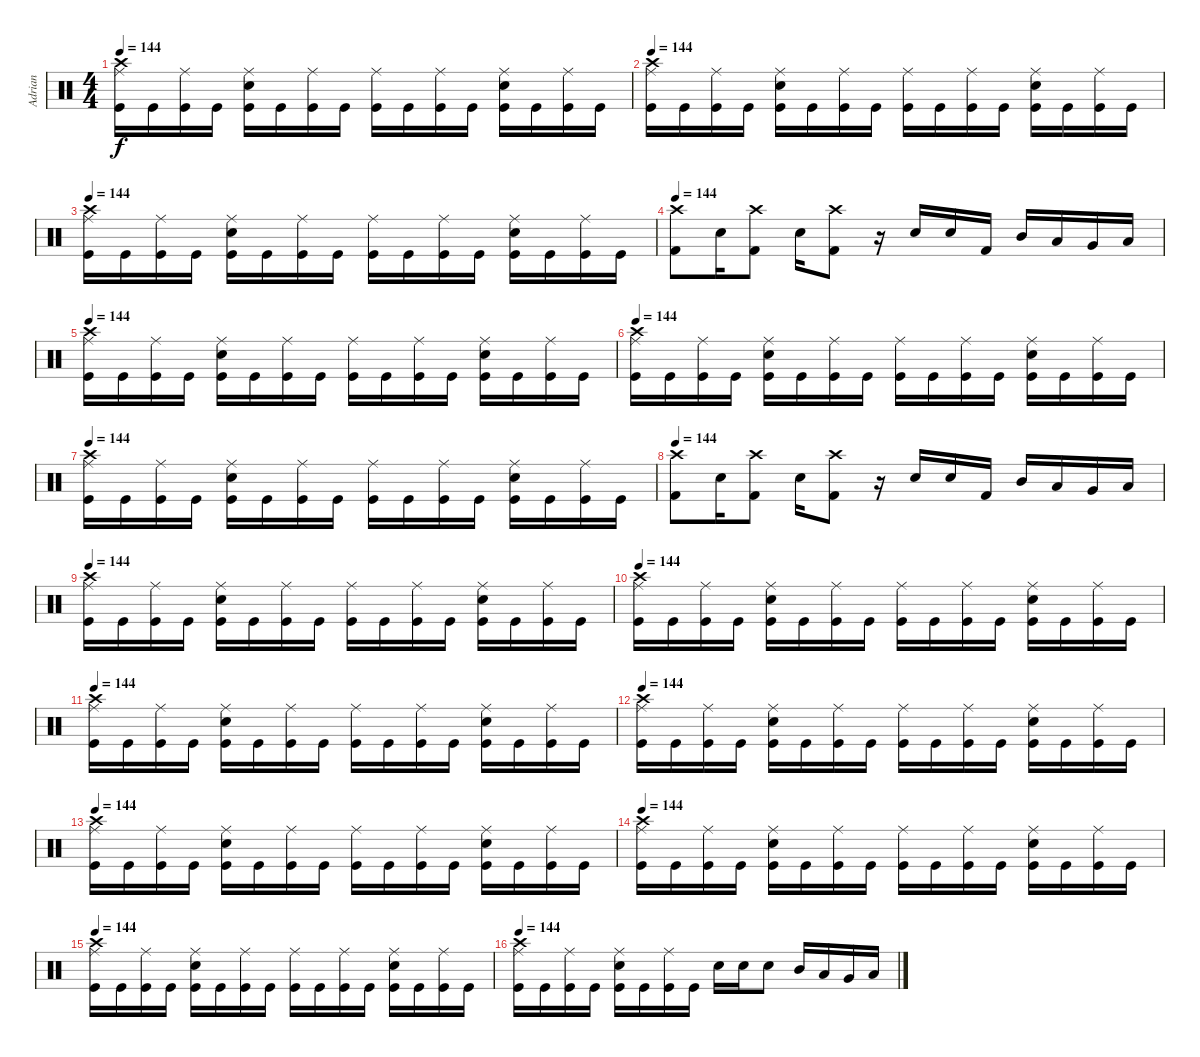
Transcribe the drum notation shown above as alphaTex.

\track ("Adrian" "Adrian") {instrument percussion}
\staff {score}
\articulation defaults
\ts (4 4)
\tempo 144
\clef neutral
\ks c
("Kick (hit)" "Ride (middle)" "Crash high (hit)").16{dy f} "Kick (hit)".16 ("Kick (hit)" "Ride (middle)").16 "Kick (hit)".16 ("Kick (hit)" "Snare (hit) 2" "Ride (middle)").16 "Kick (hit)".16 ("Kick (hit)" "Ride (middle)").16 "Kick (hit)".16 ("Kick (hit)" "Ride (middle)").16 "Kick (hit)".16 ("Kick (hit)" "Ride (middle)").16 "Kick (hit)".16 ("Kick (hit)" "Snare (hit) 2" "Ride (middle)").16 "Kick (hit)".16 ("Kick (hit)" "Ride (middle)").16 "Kick (hit)".16 |
\tempo 144
("Kick (hit)" "Ride (middle)" "Crash high (hit)").16 "Kick (hit)".16 ("Kick (hit)" "Ride (middle)").16 "Kick (hit)".16 ("Kick (hit)" "Snare (hit) 2" "Ride (middle)").16 "Kick (hit)".16 ("Kick (hit)" "Ride (middle)").16 "Kick (hit)".16 ("Kick (hit)" "Ride (middle)").16 "Kick (hit)".16 ("Kick (hit)" "Ride (middle)").16 "Kick (hit)".16 ("Kick (hit)" "Snare (hit) 2" "Ride (middle)").16 "Kick (hit)".16 ("Kick (hit)" "Ride (middle)").16 "Kick (hit)".16 |
\tempo 144
("Kick (hit)" "Ride (middle)" "Crash high (hit)").16 "Kick (hit)".16 ("Kick (hit)" "Ride (middle)").16 "Kick (hit)".16 ("Kick (hit)" "Snare (hit) 2" "Ride (middle)").16 "Kick (hit)".16 ("Kick (hit)" "Ride (middle)").16 "Kick (hit)".16 ("Kick (hit)" "Ride (middle)").16 "Kick (hit)".16 ("Kick (hit)" "Ride (middle)").16 "Kick (hit)".16 ("Kick (hit)" "Snare (hit) 2" "Ride (middle)").16 "Kick (hit)".16 ("Kick (hit)" "Ride (middle)").16 "Kick (hit)".16 |
\tempo 144
("Kick (hit) 2" "Crash high (hit)").8 "Snare (hit) 2".16 ("Kick (hit) 2" "Crash high (hit)").8 "Snare (hit) 2".16 ("Kick (hit) 2" "Crash high (hit)").8 r.16 "Snare (hit) 2".16 "Snare (hit) 2".16 "Kick (hit) 2".16 "Mid Tom (hit)".16 "Low Tom (hit)".16 "Very Low Tom (hit)".16 "Low Floor Tom (hit)".16 |
\tempo 144
("Kick (hit)" "Ride (middle)" "Crash high (hit)").16 "Kick (hit)".16 ("Kick (hit)" "Ride (middle)").16 "Kick (hit)".16 ("Kick (hit)" "Snare (hit) 2" "Ride (middle)").16 "Kick (hit)".16 ("Kick (hit)" "Ride (middle)").16 "Kick (hit)".16 ("Kick (hit)" "Ride (middle)").16 "Kick (hit)".16 ("Kick (hit)" "Ride (middle)").16 "Kick (hit)".16 ("Kick (hit)" "Snare (hit) 2" "Ride (middle)").16 "Kick (hit)".16 ("Kick (hit)" "Ride (middle)").16 "Kick (hit)".16 |
\tempo 144
("Kick (hit)" "Ride (middle)" "Crash high (hit)").16 "Kick (hit)".16 ("Kick (hit)" "Ride (middle)").16 "Kick (hit)".16 ("Kick (hit)" "Snare (hit) 2" "Ride (middle)").16 "Kick (hit)".16 ("Kick (hit)" "Ride (middle)").16 "Kick (hit)".16 ("Kick (hit)" "Ride (middle)").16 "Kick (hit)".16 ("Kick (hit)" "Ride (middle)").16 "Kick (hit)".16 ("Kick (hit)" "Snare (hit) 2" "Ride (middle)").16 "Kick (hit)".16 ("Kick (hit)" "Ride (middle)").16 "Kick (hit)".16 |
\tempo 144
("Kick (hit)" "Ride (middle)" "Crash high (hit)").16 "Kick (hit)".16 ("Kick (hit)" "Ride (middle)").16 "Kick (hit)".16 ("Kick (hit)" "Snare (hit) 2" "Ride (middle)").16 "Kick (hit)".16 ("Kick (hit)" "Ride (middle)").16 "Kick (hit)".16 ("Kick (hit)" "Ride (middle)").16 "Kick (hit)".16 ("Kick (hit)" "Ride (middle)").16 "Kick (hit)".16 ("Kick (hit)" "Snare (hit) 2" "Ride (middle)").16 "Kick (hit)".16 ("Kick (hit)" "Ride (middle)").16 "Kick (hit)".16 |
\tempo 144
("Kick (hit) 2" "Crash high (hit)").8 "Snare (hit) 2".16 ("Kick (hit) 2" "Crash high (hit)").8 "Snare (hit) 2".16 ("Kick (hit) 2" "Crash high (hit)").8 r.16 "Snare (hit) 2".16 "Snare (hit) 2".16 "Kick (hit) 2".16 "Mid Tom (hit)".16 "Low Tom (hit)".16 "Very Low Tom (hit)".16 "Low Floor Tom (hit)".16 |
\tempo 144
("Kick (hit)" "Ride (middle)" "Crash high (hit)").16 "Kick (hit)".16 ("Kick (hit)" "Ride (middle)").16 "Kick (hit)".16 ("Kick (hit)" "Snare (hit) 2" "Ride (middle)").16 "Kick (hit)".16 ("Kick (hit)" "Ride (middle)").16 "Kick (hit)".16 ("Kick (hit)" "Ride (middle)").16 "Kick (hit)".16 ("Kick (hit)" "Ride (middle)").16 "Kick (hit)".16 ("Kick (hit)" "Snare (hit) 2" "Ride (middle)").16 "Kick (hit)".16 ("Kick (hit)" "Ride (middle)").16 "Kick (hit)".16 |
\tempo 144
("Kick (hit)" "Ride (middle)" "Crash high (hit)").16 "Kick (hit)".16 ("Kick (hit)" "Ride (middle)").16 "Kick (hit)".16 ("Kick (hit)" "Snare (hit) 2" "Ride (middle)").16 "Kick (hit)".16 ("Kick (hit)" "Ride (middle)").16 "Kick (hit)".16 ("Kick (hit)" "Ride (middle)").16 "Kick (hit)".16 ("Kick (hit)" "Ride (middle)").16 "Kick (hit)".16 ("Kick (hit)" "Snare (hit) 2" "Ride (middle)").16 "Kick (hit)".16 ("Kick (hit)" "Ride (middle)").16 "Kick (hit)".16 |
\tempo 144
("Kick (hit)" "Ride (middle)" "Crash high (hit)").16 "Kick (hit)".16 ("Kick (hit)" "Ride (middle)").16 "Kick (hit)".16 ("Kick (hit)" "Snare (hit) 2" "Ride (middle)").16 "Kick (hit)".16 ("Kick (hit)" "Ride (middle)").16 "Kick (hit)".16 ("Kick (hit)" "Ride (middle)").16 "Kick (hit)".16 ("Kick (hit)" "Ride (middle)").16 "Kick (hit)".16 ("Kick (hit)" "Snare (hit) 2" "Ride (middle)").16 "Kick (hit)".16 ("Kick (hit)" "Ride (middle)").16 "Kick (hit)".16 |
\tempo 144
("Kick (hit)" "Ride (middle)" "Crash high (hit)").16 "Kick (hit)".16 ("Kick (hit)" "Ride (middle)").16 "Kick (hit)".16 ("Kick (hit)" "Snare (hit) 2" "Ride (middle)").16 "Kick (hit)".16 ("Kick (hit)" "Ride (middle)").16 "Kick (hit)".16 ("Kick (hit)" "Ride (middle)").16 "Kick (hit)".16 ("Kick (hit)" "Ride (middle)").16 "Kick (hit)".16 ("Kick (hit)" "Snare (hit) 2" "Ride (middle)").16 "Kick (hit)".16 ("Kick (hit)" "Ride (middle)").16 "Kick (hit)".16 |
\tempo 144
("Kick (hit)" "Ride (middle)" "Crash high (hit)").16 "Kick (hit)".16 ("Kick (hit)" "Ride (middle)").16 "Kick (hit)".16 ("Kick (hit)" "Snare (hit) 2" "Ride (middle)").16 "Kick (hit)".16 ("Kick (hit)" "Ride (middle)").16 "Kick (hit)".16 ("Kick (hit)" "Ride (middle)").16 "Kick (hit)".16 ("Kick (hit)" "Ride (middle)").16 "Kick (hit)".16 ("Kick (hit)" "Snare (hit) 2" "Ride (middle)").16 "Kick (hit)".16 ("Kick (hit)" "Ride (middle)").16 "Kick (hit)".16 |
\tempo 144
("Kick (hit)" "Ride (middle)" "Crash high (hit)").16 "Kick (hit)".16 ("Kick (hit)" "Ride (middle)").16 "Kick (hit)".16 ("Kick (hit)" "Snare (hit) 2" "Ride (middle)").16 "Kick (hit)".16 ("Kick (hit)" "Ride (middle)").16 "Kick (hit)".16 ("Kick (hit)" "Ride (middle)").16 "Kick (hit)".16 ("Kick (hit)" "Ride (middle)").16 "Kick (hit)".16 ("Kick (hit)" "Snare (hit) 2" "Ride (middle)").16 "Kick (hit)".16 ("Kick (hit)" "Ride (middle)").16 "Kick (hit)".16 |
\tempo 144
("Kick (hit)" "Ride (middle)" "Crash high (hit)").16 "Kick (hit)".16 ("Kick (hit)" "Ride (middle)").16 "Kick (hit)".16 ("Kick (hit)" "Snare (hit) 2" "Ride (middle)").16 "Kick (hit)".16 ("Kick (hit)" "Ride (middle)").16 "Kick (hit)".16 ("Kick (hit)" "Ride (middle)").16 "Kick (hit)".16 ("Kick (hit)" "Ride (middle)").16 "Kick (hit)".16 ("Kick (hit)" "Snare (hit) 2" "Ride (middle)").16 "Kick (hit)".16 ("Kick (hit)" "Ride (middle)").16 "Kick (hit)".16 |
\tempo 144
("Kick (hit)" "Ride (middle)" "Crash high (hit)").16 "Kick (hit)".16 ("Kick (hit)" "Ride (middle)").16 "Kick (hit)".16 ("Kick (hit)" "Snare (hit) 2" "Ride (middle)").16 "Kick (hit)".16 ("Kick (hit)" "Ride (middle)").16 "Kick (hit)".16 "Snare (hit) 2".16 "Snare (hit) 2".16 "Snare (hit) 2".8 "Mid Tom (hit)".16 "Low Tom (hit)".16 "Very Low Tom (hit)".16 "Low Floor Tom (hit)".16
